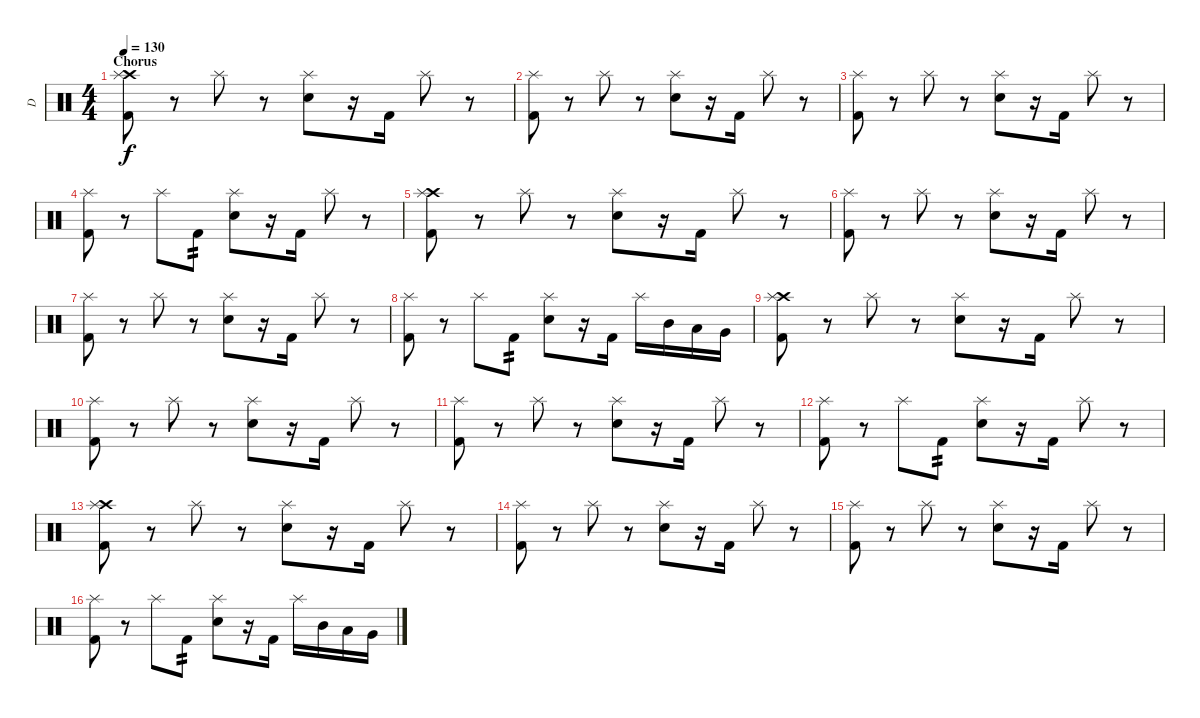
\track ("D" "D") {instrument percussion}
\staff {score}
\articulation defaults
\ts (4 4)
\section ("" "Chorus")
\tempo 130
\clef neutral
\ks c
("Crash high (hit)" "Kick (hit) 2" "Splash (hit)").8{dy f} r.8 "Splash (hit)".8 r.8 ("Electric Snare (hit)" "Splash (hit)").8 r.16 "Kick (hit) 2".16 "Splash (hit)".8 r.8 |
("Kick (hit) 2" "Splash (hit)").8 r.8 "Splash (hit)".8 r.8 ("Electric Snare (hit)" "Splash (hit)").8 r.16 "Kick (hit) 2".16 "Splash (hit)".8 r.8 |
("Kick (hit) 2" "Splash (hit)").8 r.8 "Splash (hit)".8 r.8 ("Electric Snare (hit)" "Splash (hit)").8 r.16 "Kick (hit) 2".16 "Splash (hit)".8 r.8 |
("Kick (hit) 2" "Splash (hit)").8 r.8 "Splash (hit)".8 "Kick (hit) 2".8{tp 2} ("Electric Snare (hit)" "Splash (hit)").8 r.16 "Kick (hit) 2".16 "Splash (hit)".8 r.8 |
("Crash high (hit)" "Kick (hit) 2" "Splash (hit)").8 r.8 "Splash (hit)".8 r.8 ("Electric Snare (hit)" "Splash (hit)").8 r.16 "Kick (hit) 2".16 "Splash (hit)".8 r.8 |
("Kick (hit) 2" "Splash (hit)").8 r.8 "Splash (hit)".8 r.8 ("Electric Snare (hit)" "Splash (hit)").8 r.16 "Kick (hit) 2".16 "Splash (hit)".8 r.8 |
("Kick (hit) 2" "Splash (hit)").8 r.8 "Splash (hit)".8 r.8 ("Electric Snare (hit)" "Splash (hit)").8 r.16 "Kick (hit) 2".16 "Splash (hit)".8 r.8 |
("Kick (hit) 2" "Splash (hit)").8 r.8 "Splash (hit)".8 "Kick (hit) 2".8{tp 2} ("Electric Snare (hit)" "Splash (hit)").8 r.16 "Kick (hit) 2".16 "Splash (hit)".16 "Mid Tom (hit)".16 "Low Tom (hit)".16 "Very Low Tom (hit)".16 |
("Crash high (hit)" "Kick (hit) 2" "Splash (hit)").8 r.8 "Splash (hit)".8 r.8 ("Electric Snare (hit)" "Splash (hit)").8 r.16 "Kick (hit) 2".16 "Splash (hit)".8 r.8 |
("Kick (hit) 2" "Splash (hit)").8 r.8 "Splash (hit)".8 r.8 ("Electric Snare (hit)" "Splash (hit)").8 r.16 "Kick (hit) 2".16 "Splash (hit)".8 r.8 |
("Kick (hit) 2" "Splash (hit)").8 r.8 "Splash (hit)".8 r.8 ("Electric Snare (hit)" "Splash (hit)").8 r.16 "Kick (hit) 2".16 "Splash (hit)".8 r.8 |
("Kick (hit) 2" "Splash (hit)").8 r.8 "Splash (hit)".8 "Kick (hit) 2".8{tp 2} ("Electric Snare (hit)" "Splash (hit)").8 r.16 "Kick (hit) 2".16 "Splash (hit)".8 r.8 |
("Crash high (hit)" "Kick (hit) 2" "Splash (hit)").8 r.8 "Splash (hit)".8 r.8 ("Electric Snare (hit)" "Splash (hit)").8 r.16 "Kick (hit) 2".16 "Splash (hit)".8 r.8 |
("Kick (hit) 2" "Splash (hit)").8 r.8 "Splash (hit)".8 r.8 ("Electric Snare (hit)" "Splash (hit)").8 r.16 "Kick (hit) 2".16 "Splash (hit)".8 r.8 |
("Kick (hit) 2" "Splash (hit)").8 r.8 "Splash (hit)".8 r.8 ("Electric Snare (hit)" "Splash (hit)").8 r.16 "Kick (hit) 2".16 "Splash (hit)".8 r.8 |
("Kick (hit) 2" "Splash (hit)").8 r.8 "Splash (hit)".8 "Kick (hit) 2".8{tp 2} ("Electric Snare (hit)" "Splash (hit)").8 r.16 "Kick (hit) 2".16 "Splash (hit)".16 "Mid Tom (hit)".16 "Low Tom (hit)".16 "Very Low Tom (hit)".16
